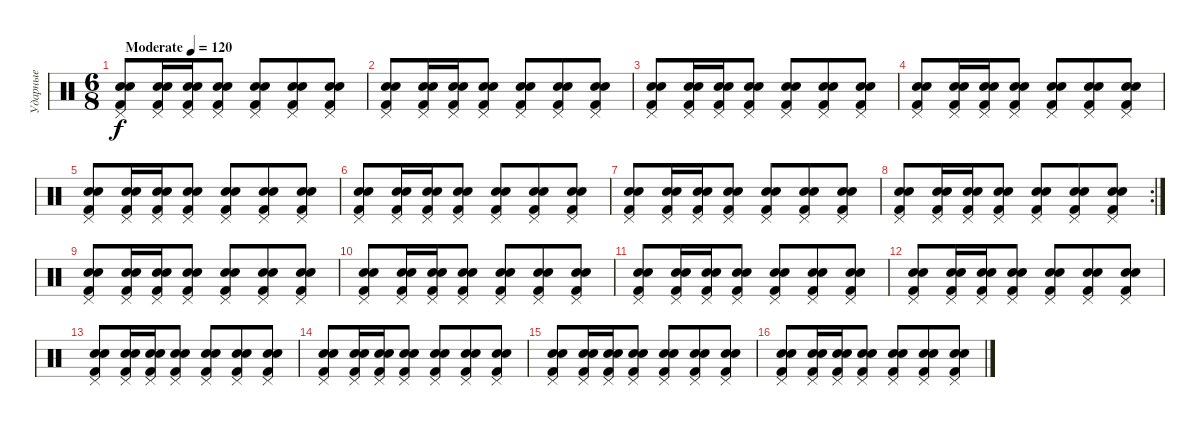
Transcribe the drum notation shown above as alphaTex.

\track ("Ударные" "Ударные") {instrument percussion}
\staff {score}
\articulation defaults
\ts (6 8)
\tempo (120 "Moderate")
\clef neutral
\ks c
("Snare (hit) 2" "Pedal Hi-Hat (hit)" "Electric Snare (hit)" "Kick (hit) 2").8{dy f} ("Snare (hit) 2" "Pedal Hi-Hat (hit)" "Electric Snare (hit)" "Kick (hit) 2").16 ("Snare (hit) 2" "Pedal Hi-Hat (hit)" "Electric Snare (hit)" "Kick (hit) 2").16 ("Snare (hit) 2" "Pedal Hi-Hat (hit)" "Electric Snare (hit)" "Kick (hit) 2").8 ("Snare (hit) 2" "Pedal Hi-Hat (hit)" "Electric Snare (hit)" "Kick (hit) 2").8 ("Snare (hit) 2" "Pedal Hi-Hat (hit)" "Electric Snare (hit)" "Kick (hit) 2").8 ("Snare (hit) 2" "Pedal Hi-Hat (hit)" "Electric Snare (hit)" "Kick (hit) 2").8 |
("Snare (hit) 2" "Pedal Hi-Hat (hit)" "Electric Snare (hit)" "Kick (hit) 2").8 ("Snare (hit) 2" "Pedal Hi-Hat (hit)" "Electric Snare (hit)" "Kick (hit) 2").16 ("Snare (hit) 2" "Pedal Hi-Hat (hit)" "Electric Snare (hit)" "Kick (hit) 2").16 ("Snare (hit) 2" "Pedal Hi-Hat (hit)" "Electric Snare (hit)" "Kick (hit) 2").8 ("Snare (hit) 2" "Pedal Hi-Hat (hit)" "Electric Snare (hit)" "Kick (hit) 2").8 ("Snare (hit) 2" "Pedal Hi-Hat (hit)" "Electric Snare (hit)" "Kick (hit) 2").8 ("Snare (hit) 2" "Pedal Hi-Hat (hit)" "Electric Snare (hit)" "Kick (hit) 2").8 |
("Snare (hit) 2" "Pedal Hi-Hat (hit)" "Electric Snare (hit)" "Kick (hit) 2").8 ("Snare (hit) 2" "Pedal Hi-Hat (hit)" "Electric Snare (hit)" "Kick (hit) 2").16 ("Snare (hit) 2" "Pedal Hi-Hat (hit)" "Electric Snare (hit)" "Kick (hit) 2").16 ("Snare (hit) 2" "Pedal Hi-Hat (hit)" "Electric Snare (hit)" "Kick (hit) 2").8 ("Snare (hit) 2" "Pedal Hi-Hat (hit)" "Electric Snare (hit)" "Kick (hit) 2").8 ("Snare (hit) 2" "Pedal Hi-Hat (hit)" "Electric Snare (hit)" "Kick (hit) 2").8 ("Snare (hit) 2" "Pedal Hi-Hat (hit)" "Electric Snare (hit)" "Kick (hit) 2").8 |
("Snare (hit) 2" "Pedal Hi-Hat (hit)" "Electric Snare (hit)" "Kick (hit) 2").8 ("Snare (hit) 2" "Pedal Hi-Hat (hit)" "Electric Snare (hit)" "Kick (hit) 2").16 ("Snare (hit) 2" "Pedal Hi-Hat (hit)" "Electric Snare (hit)" "Kick (hit) 2").16 ("Snare (hit) 2" "Pedal Hi-Hat (hit)" "Electric Snare (hit)" "Kick (hit) 2").8 ("Snare (hit) 2" "Pedal Hi-Hat (hit)" "Electric Snare (hit)" "Kick (hit) 2").8 ("Snare (hit) 2" "Pedal Hi-Hat (hit)" "Electric Snare (hit)" "Kick (hit) 2").8 ("Snare (hit) 2" "Pedal Hi-Hat (hit)" "Electric Snare (hit)" "Kick (hit) 2").8 |
("Snare (hit) 2" "Pedal Hi-Hat (hit)" "Electric Snare (hit)" "Kick (hit) 2").8 ("Snare (hit) 2" "Pedal Hi-Hat (hit)" "Electric Snare (hit)" "Kick (hit) 2").16 ("Snare (hit) 2" "Pedal Hi-Hat (hit)" "Electric Snare (hit)" "Kick (hit) 2").16 ("Snare (hit) 2" "Pedal Hi-Hat (hit)" "Electric Snare (hit)" "Kick (hit) 2").8 ("Snare (hit) 2" "Pedal Hi-Hat (hit)" "Electric Snare (hit)" "Kick (hit) 2").8 ("Snare (hit) 2" "Pedal Hi-Hat (hit)" "Electric Snare (hit)" "Kick (hit) 2").8 ("Snare (hit) 2" "Pedal Hi-Hat (hit)" "Electric Snare (hit)" "Kick (hit) 2").8 |
("Snare (hit) 2" "Pedal Hi-Hat (hit)" "Electric Snare (hit)" "Kick (hit) 2").8 ("Snare (hit) 2" "Pedal Hi-Hat (hit)" "Electric Snare (hit)" "Kick (hit) 2").16 ("Snare (hit) 2" "Pedal Hi-Hat (hit)" "Electric Snare (hit)" "Kick (hit) 2").16 ("Snare (hit) 2" "Pedal Hi-Hat (hit)" "Electric Snare (hit)" "Kick (hit) 2").8 ("Snare (hit) 2" "Pedal Hi-Hat (hit)" "Electric Snare (hit)" "Kick (hit) 2").8 ("Snare (hit) 2" "Pedal Hi-Hat (hit)" "Electric Snare (hit)" "Kick (hit) 2").8 ("Snare (hit) 2" "Pedal Hi-Hat (hit)" "Electric Snare (hit)" "Kick (hit) 2").8 |
("Snare (hit) 2" "Pedal Hi-Hat (hit)" "Electric Snare (hit)" "Kick (hit) 2").8 ("Snare (hit) 2" "Pedal Hi-Hat (hit)" "Electric Snare (hit)" "Kick (hit) 2").16 ("Snare (hit) 2" "Pedal Hi-Hat (hit)" "Electric Snare (hit)" "Kick (hit) 2").16 ("Snare (hit) 2" "Pedal Hi-Hat (hit)" "Electric Snare (hit)" "Kick (hit) 2").8 ("Snare (hit) 2" "Pedal Hi-Hat (hit)" "Electric Snare (hit)" "Kick (hit) 2").8 ("Snare (hit) 2" "Pedal Hi-Hat (hit)" "Electric Snare (hit)" "Kick (hit) 2").8 ("Snare (hit) 2" "Pedal Hi-Hat (hit)" "Electric Snare (hit)" "Kick (hit) 2").8 |
\rc 2
("Snare (hit) 2" "Pedal Hi-Hat (hit)" "Electric Snare (hit)" "Kick (hit) 2").8 ("Snare (hit) 2" "Pedal Hi-Hat (hit)" "Electric Snare (hit)" "Kick (hit) 2").16 ("Snare (hit) 2" "Pedal Hi-Hat (hit)" "Electric Snare (hit)" "Kick (hit) 2").16 ("Snare (hit) 2" "Pedal Hi-Hat (hit)" "Electric Snare (hit)" "Kick (hit) 2").8 ("Snare (hit) 2" "Pedal Hi-Hat (hit)" "Electric Snare (hit)" "Kick (hit) 2").8 ("Snare (hit) 2" "Pedal Hi-Hat (hit)" "Electric Snare (hit)" "Kick (hit) 2").8 ("Snare (hit) 2" "Pedal Hi-Hat (hit)" "Electric Snare (hit)" "Kick (hit) 2").8 |
("Snare (hit) 2" "Pedal Hi-Hat (hit)" "Electric Snare (hit)" "Kick (hit) 2").8 ("Snare (hit) 2" "Pedal Hi-Hat (hit)" "Electric Snare (hit)" "Kick (hit) 2").16 ("Snare (hit) 2" "Pedal Hi-Hat (hit)" "Electric Snare (hit)" "Kick (hit) 2").16 ("Snare (hit) 2" "Pedal Hi-Hat (hit)" "Electric Snare (hit)" "Kick (hit) 2").8 ("Snare (hit) 2" "Pedal Hi-Hat (hit)" "Electric Snare (hit)" "Kick (hit) 2").8 ("Snare (hit) 2" "Pedal Hi-Hat (hit)" "Electric Snare (hit)" "Kick (hit) 2").8 ("Snare (hit) 2" "Pedal Hi-Hat (hit)" "Electric Snare (hit)" "Kick (hit) 2").8 |
("Snare (hit) 2" "Pedal Hi-Hat (hit)" "Electric Snare (hit)" "Kick (hit) 2").8 ("Snare (hit) 2" "Pedal Hi-Hat (hit)" "Electric Snare (hit)" "Kick (hit) 2").16 ("Snare (hit) 2" "Pedal Hi-Hat (hit)" "Electric Snare (hit)" "Kick (hit) 2").16 ("Snare (hit) 2" "Pedal Hi-Hat (hit)" "Electric Snare (hit)" "Kick (hit) 2").8 ("Snare (hit) 2" "Pedal Hi-Hat (hit)" "Electric Snare (hit)" "Kick (hit) 2").8 ("Snare (hit) 2" "Pedal Hi-Hat (hit)" "Electric Snare (hit)" "Kick (hit) 2").8 ("Snare (hit) 2" "Pedal Hi-Hat (hit)" "Electric Snare (hit)" "Kick (hit) 2").8 |
("Snare (hit) 2" "Pedal Hi-Hat (hit)" "Electric Snare (hit)" "Kick (hit) 2").8 ("Snare (hit) 2" "Pedal Hi-Hat (hit)" "Electric Snare (hit)" "Kick (hit) 2").16 ("Snare (hit) 2" "Pedal Hi-Hat (hit)" "Electric Snare (hit)" "Kick (hit) 2").16 ("Snare (hit) 2" "Pedal Hi-Hat (hit)" "Electric Snare (hit)" "Kick (hit) 2").8 ("Snare (hit) 2" "Pedal Hi-Hat (hit)" "Electric Snare (hit)" "Kick (hit) 2").8 ("Snare (hit) 2" "Pedal Hi-Hat (hit)" "Electric Snare (hit)" "Kick (hit) 2").8 ("Snare (hit) 2" "Pedal Hi-Hat (hit)" "Electric Snare (hit)" "Kick (hit) 2").8 |
("Snare (hit) 2" "Pedal Hi-Hat (hit)" "Electric Snare (hit)" "Kick (hit) 2").8 ("Snare (hit) 2" "Pedal Hi-Hat (hit)" "Electric Snare (hit)" "Kick (hit) 2").16 ("Snare (hit) 2" "Pedal Hi-Hat (hit)" "Electric Snare (hit)" "Kick (hit) 2").16 ("Snare (hit) 2" "Pedal Hi-Hat (hit)" "Electric Snare (hit)" "Kick (hit) 2").8 ("Snare (hit) 2" "Pedal Hi-Hat (hit)" "Electric Snare (hit)" "Kick (hit) 2").8 ("Snare (hit) 2" "Pedal Hi-Hat (hit)" "Electric Snare (hit)" "Kick (hit) 2").8 ("Snare (hit) 2" "Pedal Hi-Hat (hit)" "Electric Snare (hit)" "Kick (hit) 2").8 |
("Snare (hit) 2" "Pedal Hi-Hat (hit)" "Electric Snare (hit)" "Kick (hit) 2").8 ("Snare (hit) 2" "Pedal Hi-Hat (hit)" "Electric Snare (hit)" "Kick (hit) 2").16 ("Snare (hit) 2" "Pedal Hi-Hat (hit)" "Electric Snare (hit)" "Kick (hit) 2").16 ("Snare (hit) 2" "Pedal Hi-Hat (hit)" "Electric Snare (hit)" "Kick (hit) 2").8 ("Snare (hit) 2" "Pedal Hi-Hat (hit)" "Electric Snare (hit)" "Kick (hit) 2").8 ("Snare (hit) 2" "Pedal Hi-Hat (hit)" "Electric Snare (hit)" "Kick (hit) 2").8 ("Snare (hit) 2" "Pedal Hi-Hat (hit)" "Electric Snare (hit)" "Kick (hit) 2").8 |
("Snare (hit) 2" "Pedal Hi-Hat (hit)" "Electric Snare (hit)" "Kick (hit) 2").8 ("Snare (hit) 2" "Pedal Hi-Hat (hit)" "Electric Snare (hit)" "Kick (hit) 2").16 ("Snare (hit) 2" "Pedal Hi-Hat (hit)" "Electric Snare (hit)" "Kick (hit) 2").16 ("Snare (hit) 2" "Pedal Hi-Hat (hit)" "Electric Snare (hit)" "Kick (hit) 2").8 ("Snare (hit) 2" "Pedal Hi-Hat (hit)" "Electric Snare (hit)" "Kick (hit) 2").8 ("Snare (hit) 2" "Pedal Hi-Hat (hit)" "Electric Snare (hit)" "Kick (hit) 2").8 ("Snare (hit) 2" "Pedal Hi-Hat (hit)" "Electric Snare (hit)" "Kick (hit) 2").8 |
("Snare (hit) 2" "Pedal Hi-Hat (hit)" "Electric Snare (hit)" "Kick (hit) 2").8 ("Snare (hit) 2" "Pedal Hi-Hat (hit)" "Electric Snare (hit)" "Kick (hit) 2").16 ("Snare (hit) 2" "Pedal Hi-Hat (hit)" "Electric Snare (hit)" "Kick (hit) 2").16 ("Snare (hit) 2" "Pedal Hi-Hat (hit)" "Electric Snare (hit)" "Kick (hit) 2").8 ("Snare (hit) 2" "Pedal Hi-Hat (hit)" "Electric Snare (hit)" "Kick (hit) 2").8 ("Snare (hit) 2" "Pedal Hi-Hat (hit)" "Electric Snare (hit)" "Kick (hit) 2").8 ("Snare (hit) 2" "Pedal Hi-Hat (hit)" "Electric Snare (hit)" "Kick (hit) 2").8 |
("Snare (hit) 2" "Pedal Hi-Hat (hit)" "Electric Snare (hit)" "Kick (hit) 2").8 ("Snare (hit) 2" "Pedal Hi-Hat (hit)" "Electric Snare (hit)" "Kick (hit) 2").16 ("Snare (hit) 2" "Pedal Hi-Hat (hit)" "Electric Snare (hit)" "Kick (hit) 2").16 ("Snare (hit) 2" "Pedal Hi-Hat (hit)" "Electric Snare (hit)" "Kick (hit) 2").8 ("Snare (hit) 2" "Pedal Hi-Hat (hit)" "Electric Snare (hit)" "Kick (hit) 2").8 ("Snare (hit) 2" "Pedal Hi-Hat (hit)" "Electric Snare (hit)" "Kick (hit) 2").8 ("Snare (hit) 2" "Pedal Hi-Hat (hit)" "Electric Snare (hit)" "Kick (hit) 2").8
